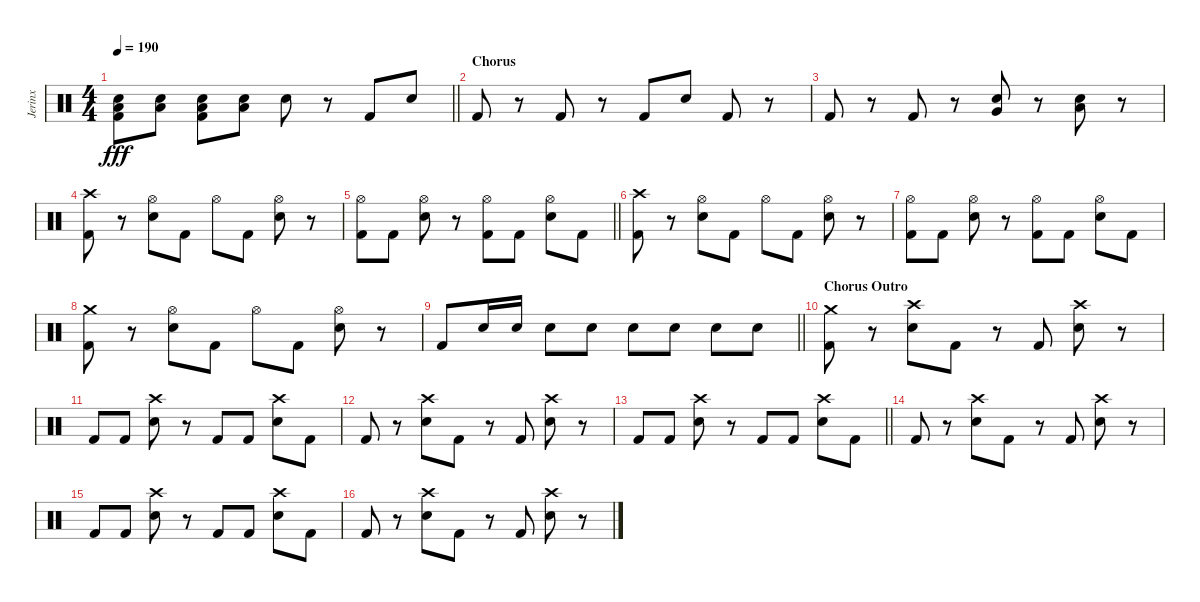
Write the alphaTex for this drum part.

\track ("Jerinx" "Jerinx") {instrument percussion}
\staff {score}
\articulation defaults
\ts (4 4)
\tempo 190
\clef neutral
\barLineRight lightlight
\ks c
("Electric Snare (hit)" "Kick (hit) 2" "Low Floor Tom (hit)").8{dy fff} ("Electric Snare (hit)" "Low Floor Tom (hit)").8 ("Electric Snare (hit)" "Kick (hit) 2" "Low Floor Tom (hit)").8 ("Electric Snare (hit)" "Low Floor Tom (hit)").8 "Electric Snare (hit)".8 r.8 "Kick (hit) 2".8 "Electric Snare (hit)".8 |
\section ("" "Chorus")
"Kick (hit) 2".8 r.8 "Kick (hit) 2".8 r.8 "Kick (hit) 2".8 "Electric Snare (hit)".8 "Kick (hit) 2".8 r.8 |
"Kick (hit) 2".8 r.8 "Kick (hit) 2".8 r.8 ("Electric Snare (hit)" "Very Low Tom (hit)").8 r.8 ("Electric Snare (hit)" "Low Floor Tom (hit)").8 r.8 |
("Kick (hit) 2" "Crash high (hit)").8 r.8 ("Hi-Hat (open)" "Electric Snare (hit)").8 "Kick (hit) 2".8 "Hi-Hat (open)".8 "Kick (hit) 2".8 ("Hi-Hat (open)" "Electric Snare (hit)").8 r.8 |
\barLineRight lightlight
("Hi-Hat (open)" "Kick (hit) 2").8 "Kick (hit) 2".8 ("Hi-Hat (open)" "Electric Snare (hit)").8 r.8 ("Hi-Hat (open)" "Kick (hit) 2").8 "Kick (hit) 2".8 ("Hi-Hat (open)" "Electric Snare (hit)").8 "Kick (hit) 2".8 |
("Kick (hit) 2" "Crash high (hit)").8 r.8 ("Hi-Hat (open)" "Electric Snare (hit)").8 "Kick (hit) 2".8 "Hi-Hat (open)".8 "Kick (hit) 2".8 ("Hi-Hat (open)" "Electric Snare (hit)").8 r.8 |
("Hi-Hat (open)" "Kick (hit) 2").8 "Kick (hit) 2".8 ("Hi-Hat (open)" "Electric Snare (hit)").8 r.8 ("Hi-Hat (open)" "Kick (hit) 2").8 "Kick (hit) 2".8 ("Hi-Hat (open)" "Electric Snare (hit)").8 "Kick (hit) 2".8 |
("Kick (hit) 2" "Crash medium (hit)").8 r.8 ("Hi-Hat (open)" "Electric Snare (hit)").8 "Kick (hit) 2".8 "Hi-Hat (open)".8 "Kick (hit) 2".8 ("Hi-Hat (open)" "Electric Snare (hit)").8 r.8 |
\barLineRight lightlight "Kick (hit) 2".8 "Electric Snare (hit)".16 "Electric Snare (hit)".16 "Electric Snare (hit)".8 "Electric Snare (hit)".8 "Electric Snare (hit)".8 "Electric Snare (hit)".8 "Electric Snare (hit)".8 "Electric Snare (hit)".8
|
\section ("" "Chorus Outro")
("Kick (hit) 2" "Crash medium (hit)").8 r.8 ("Electric Snare (hit)" "Crash high (hit)").8 "Kick (hit) 2".8 r.8 "Kick (hit) 2".8 ("Electric Snare (hit)" "Crash high (hit)").8 r.8 |
"Kick (hit) 2".8 "Kick (hit) 2".8 ("Electric Snare (hit)" "Crash high (hit)").8 r.8 "Kick (hit) 2".8 "Kick (hit) 2".8 ("Electric Snare (hit)" "Crash high (hit)").8 "Kick (hit) 2".8 |
"Kick (hit) 2".8 r.8 ("Electric Snare (hit)" "Crash high (hit)").8 "Kick (hit) 2".8 r.8 "Kick (hit) 2".8 ("Electric Snare (hit)" "Crash high (hit)").8 r.8 |
\barLineRight lightlight "Kick (hit) 2".8 "Kick (hit) 2".8
("Electric Snare (hit)" "Crash high (hit)").8 r.8 "Kick (hit) 2".8 "Kick (hit) 2".8 ("Electric Snare (hit)" "Crash high (hit)").8 "Kick (hit) 2".8 |
"Kick (hit) 2".8 r.8 ("Electric Snare (hit)" "Crash high (hit)").8 "Kick (hit) 2".8 r.8 "Kick (hit) 2".8 ("Electric Snare (hit)" "Crash high (hit)").8 r.8 |
"Kick (hit) 2".8 "Kick (hit) 2".8 ("Electric Snare (hit)" "Crash high (hit)").8 r.8 "Kick (hit) 2".8 "Kick (hit) 2".8 ("Electric Snare (hit)" "Crash high (hit)").8 "Kick (hit) 2".8 |
"Kick (hit) 2".8 r.8 ("Electric Snare (hit)" "Crash high (hit)").8 "Kick (hit) 2".8 r.8 "Kick (hit) 2".8 ("Electric Snare (hit)" "Crash high (hit)").8 r.8
